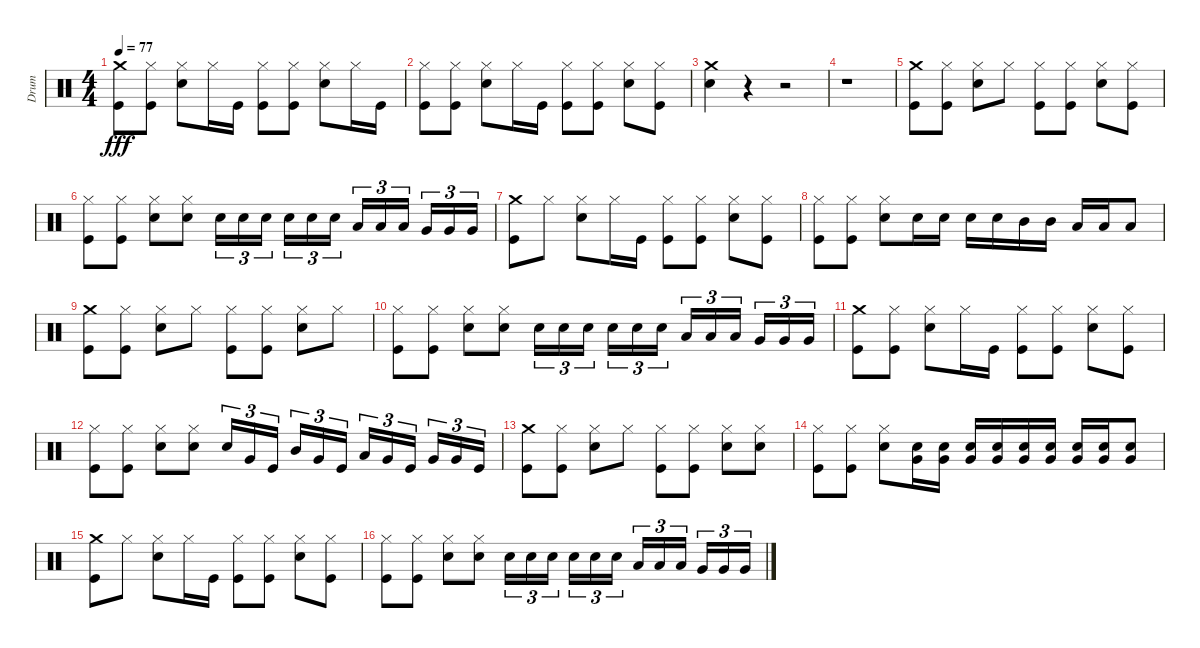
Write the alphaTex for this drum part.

\track ("Drum" "Drum") {instrument percussion}
\staff {score}
\articulation defaults
\ts (4 4)
\tempo 77
\clef neutral
\ks c
("Crash medium (hit)" "Kick (hit)").8{dy fff} ("Hi-Hat (closed)" "Kick (hit)").8 ("Hi-Hat (closed)" "Snare (hit) 2").8 "Hi-Hat (closed)".16 "Kick (hit)".16 ("Hi-Hat (closed)" "Kick (hit)").8 ("Hi-Hat (closed)" "Kick (hit)").8 ("Hi-Hat (closed)" "Snare (hit) 2").8 "Hi-Hat (closed)".16 "Kick (hit)".16 |
("Hi-Hat (closed)" "Kick (hit)").8 ("Hi-Hat (closed)" "Kick (hit)").8 ("Hi-Hat (closed)" "Snare (hit) 2").8 "Hi-Hat (closed)".16 "Kick (hit)".16 ("Hi-Hat (closed)" "Kick (hit)").8 ("Hi-Hat (closed)" "Kick (hit)").8 ("Hi-Hat (closed)" "Snare (hit) 2").8 ("Hi-Hat (closed)" "Kick (hit)").8 |
("Crash medium (hit)" "Snare (hit) 2").4 r.4 r.2 |
r.1 |
("Crash medium (hit)" "Kick (hit)").8 ("Hi-Hat (closed)" "Kick (hit)").8 ("Hi-Hat (closed)" "Snare (hit) 2").8 "Hi-Hat (closed)".8 ("Hi-Hat (closed)" "Kick (hit)").8 ("Hi-Hat (closed)" "Kick (hit)").8 ("Hi-Hat (closed)" "Snare (hit) 2").8 ("Hi-Hat (closed)" "Kick (hit)").8 |
("Hi-Hat (closed)" "Kick (hit)").8 ("Hi-Hat (closed)" "Kick (hit)").8 ("Hi-Hat (closed)" "Snare (hit) 2").8 ("Hi-Hat (closed)" "Snare (hit) 2").8 "Snare (hit) 2".16{tu (3 2)} "Snare (hit) 2".16{tu (3 2)} "Snare (hit) 2".16{tu (3 2)} "Snare (hit) 2".16{tu (3 2)} "Snare (hit) 2".16{tu (3 2)} "Snare (hit) 2".16{tu (3 2)} "Low Tom (hit)".16{tu (3 2)} "Low Tom (hit)".16{tu (3 2)} "Low Tom (hit)".16{tu (3 2)} "Very Low Tom (hit)".16{tu (3 2)} "Very Low Tom (hit)".16{tu (3 2)} "Very Low Tom (hit)".16{tu (3 2)} |
("Crash medium (hit)" "Kick (hit)").8 "Hi-Hat (closed)".8 ("Hi-Hat (closed)" "Snare (hit) 2").8 "Hi-Hat (closed)".16 "Kick (hit)".16 ("Hi-Hat (closed)" "Kick (hit)").8 ("Hi-Hat (closed)" "Kick (hit)").8 ("Hi-Hat (closed)" "Snare (hit) 2").8 ("Hi-Hat (closed)" "Kick (hit)").8 |
("Hi-Hat (closed)" "Kick (hit)").8 ("Hi-Hat (closed)" "Kick (hit)").8 ("Hi-Hat (closed)" "Snare (hit) 2").8 "Snare (hit) 2".16 "Snare (hit) 2".16 "Snare (hit) 2".16 "Snare (hit) 2".16 "Mid Tom (hit)".16 "Mid Tom (hit)".16 "Low Tom (hit)".16 "Low Tom (hit)".16 "Low Tom (hit)".8 |
("Crash medium (hit)" "Kick (hit)").8 ("Hi-Hat (closed)" "Kick (hit)").8 ("Hi-Hat (closed)" "Snare (hit) 2").8 "Hi-Hat (closed)".8 ("Hi-Hat (closed)" "Kick (hit)").8 ("Hi-Hat (closed)" "Kick (hit)").8 ("Hi-Hat (closed)" "Snare (hit) 2").8 "Hi-Hat (closed)".8 |
("Hi-Hat (closed)" "Kick (hit)").8 ("Hi-Hat (closed)" "Kick (hit)").8 ("Hi-Hat (closed)" "Snare (hit) 2").8 ("Hi-Hat (closed)" "Snare (hit) 2").8 "Snare (hit) 2".16{tu (3 2)} "Snare (hit) 2".16{tu (3 2)} "Snare (hit) 2".16{tu (3 2)} "Snare (hit) 2".16{tu (3 2)} "Snare (hit) 2".16{tu (3 2)} "Snare (hit) 2".16{tu (3 2)} "Low Tom (hit)".16{tu (3 2)} "Low Tom (hit)".16{tu (3 2)} "Low Tom (hit)".16{tu (3 2)} "Very Low Tom (hit)".16{tu (3 2)} "Very Low Tom (hit)".16{tu (3 2)} "Very Low Tom (hit)".16{tu (3 2)} |
("Crash medium (hit)" "Kick (hit)").8 ("Hi-Hat (closed)" "Kick (hit)").8 ("Hi-Hat (closed)" "Snare (hit) 2").8 "Hi-Hat (closed)".16 "Kick (hit)".16 ("Hi-Hat (closed)" "Kick (hit)").8 ("Hi-Hat (closed)" "Kick (hit)").8 ("Hi-Hat (closed)" "Snare (hit) 2").8 ("Hi-Hat (closed)" "Kick (hit)").8 |
("Hi-Hat (closed)" "Kick (hit)").8 ("Hi-Hat (closed)" "Kick (hit)").8 ("Hi-Hat (closed)" "Snare (hit) 2").8 ("Hi-Hat (closed)" "Snare (hit) 2").8 "Snare (hit) 2".16{tu (3 2)} "Very Low Tom (hit)".16{tu (3 2)} "Kick (hit)".16{tu (3 2)} "Mid Tom (hit)".16{tu (3 2)} "Very Low Tom (hit)".16{tu (3 2)} "Kick (hit)".16{tu (3 2)} "Low Tom (hit)".16{tu (3 2)} "Very Low Tom (hit)".16{tu (3 2)} "Kick (hit)".16{tu (3 2)} "Very Low Tom (hit)".16{tu (3 2)} "Very Low Tom (hit)".16{tu (3 2)} "Kick (hit)".16{tu (3 2)} |
("Crash medium (hit)" "Kick (hit)").8 ("Hi-Hat (closed)" "Kick (hit)").8 ("Hi-Hat (closed)" "Snare (hit) 2").8 "Hi-Hat (closed)".8 ("Hi-Hat (closed)" "Kick (hit)").8 ("Hi-Hat (closed)" "Kick (hit)").8 ("Hi-Hat (closed)" "Snare (hit) 2").8 ("Hi-Hat (closed)" "Snare (hit) 2").8 |
("Hi-Hat (closed)" "Kick (hit)").8 ("Hi-Hat (closed)" "Kick (hit)").8 ("Hi-Hat (closed)" "Snare (hit) 2").8 ("Snare (hit) 2" "Very Low Tom (hit)").16 ("Snare (hit) 2" "Very Low Tom (hit)").16 ("Snare (hit) 2" "Very Low Tom (hit)").16 ("Snare (hit) 2" "Very Low Tom (hit)").16 ("Snare (hit) 2" "Very Low Tom (hit)").16 ("Snare (hit) 2" "Very Low Tom (hit)").16 ("Snare (hit) 2" "Very Low Tom (hit)").16 ("Snare (hit) 2" "Very Low Tom (hit)").16 ("Snare (hit) 2" "Very Low Tom (hit)").8 |
("Crash medium (hit)" "Kick (hit)").8 "Hi-Hat (closed)".8 ("Hi-Hat (closed)" "Snare (hit) 2").8 "Hi-Hat (closed)".16 "Kick (hit)".16 ("Hi-Hat (closed)" "Kick (hit)").8 ("Hi-Hat (closed)" "Kick (hit)").8 ("Hi-Hat (closed)" "Snare (hit) 2").8 ("Hi-Hat (closed)" "Kick (hit)").8 |
("Hi-Hat (closed)" "Kick (hit)").8 ("Hi-Hat (closed)" "Kick (hit)").8 ("Hi-Hat (closed)" "Snare (hit) 2").8 ("Hi-Hat (closed)" "Snare (hit) 2").8 "Snare (hit) 2".16{tu (3 2)} "Snare (hit) 2".16{tu (3 2)} "Snare (hit) 2".16{tu (3 2)} "Snare (hit) 2".16{tu (3 2)} "Snare (hit) 2".16{tu (3 2)} "Snare (hit) 2".16{tu (3 2)} "Low Tom (hit)".16{tu (3 2)} "Low Tom (hit)".16{tu (3 2)} "Low Tom (hit)".16{tu (3 2)} "Very Low Tom (hit)".16{tu (3 2)} "Very Low Tom (hit)".16{tu (3 2)} "Very Low Tom (hit)".16{tu (3 2)}
